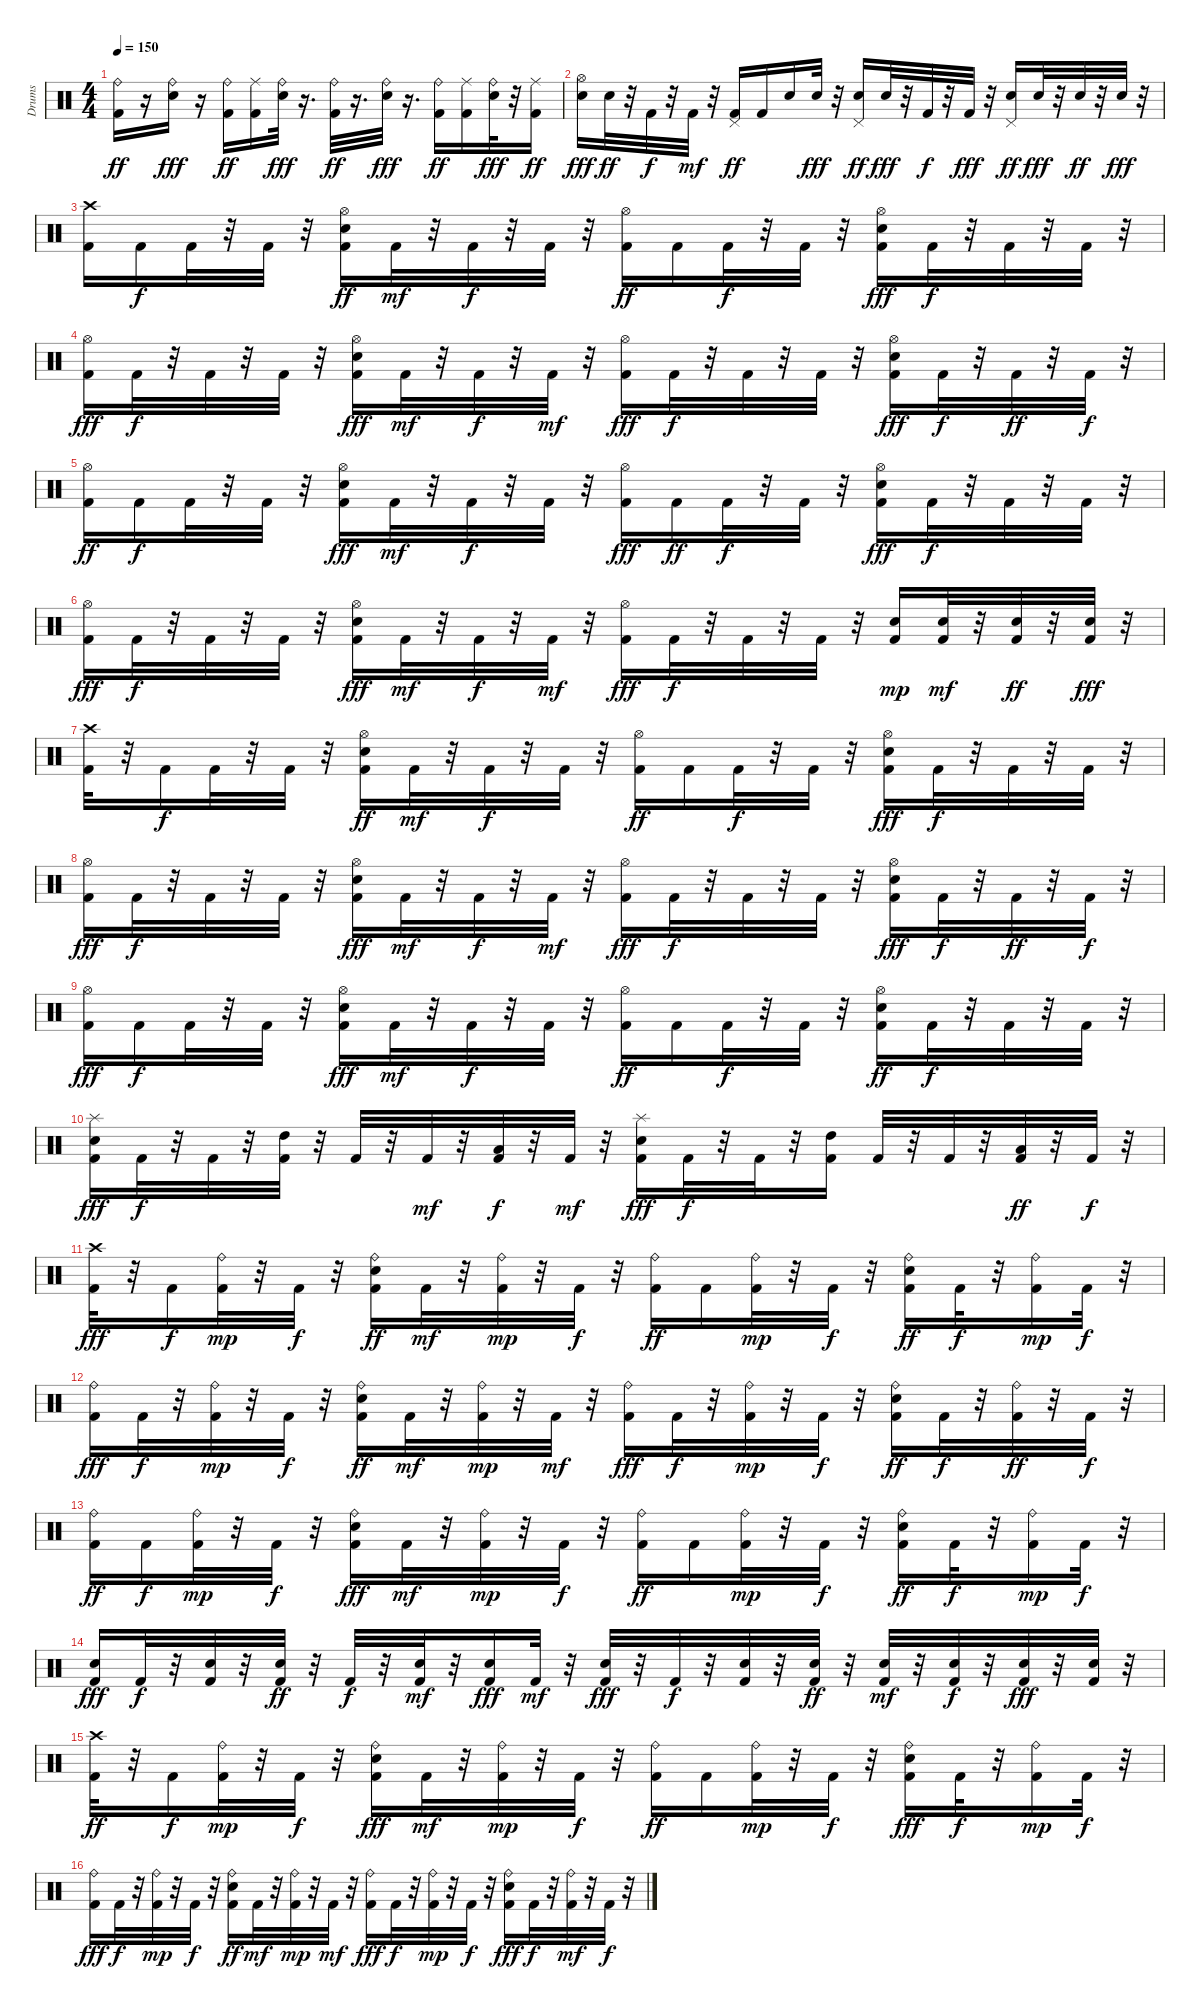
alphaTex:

\track ("Drums" "Drums") {instrument percussion}
\staff {score}
\articulation defaults
\ts (4 4)
\tempo 150
\clef neutral
\ks c
("Ride (bell)" "Kick (hit) 2").16{dy ff} r.16 ("Electric Snare (hit)" "Ride (bell)").16{dy fff} r.16 ("Ride (bell)" "Kick (hit) 2").16{dy ff} ("Ride (middle)" "Kick (hit) 2").16 ("Electric Snare (hit)" "Ride (bell)").32{dy fff} r.16{d} ("Ride (bell)" "Kick (hit) 2").32{dy ff} r.16{d} ("Electric Snare (hit)" "Ride (bell)").32{dy fff} r.16{d} ("Ride (bell)" "Kick (hit) 2").16{dy ff} ("Kick (hit) 2" "Ride (middle)").16 ("Ride (bell)" "Electric Snare (hit)").32{dy fff} r.32 ("Kick (hit) 2" "Ride (middle)").16{dy ff} |
("Electric Snare (hit)" "Hi-Hat (open)").16{dy fff} "Electric Snare (hit)".32{dy ff} r.32 "Kick (hit) 2".32{dy f} r.32 "Kick (hit) 2".32{dy mf} r.32 ("Kick (hit) 2" "Pedal Hi-Hat (hit)").16{dy ff} "Kick (hit) 2".16 "Electric Snare (hit)".16 "Electric Snare (hit)".32{dy fff} r.32 ("Electric Snare (hit)" "Pedal Hi-Hat (hit)").16{dy ff} "Electric Snare (hit)".32{dy fff} r.32 "Kick (hit) 2".32{dy f} r.32 "Kick (hit) 2".32{dy fff} r.32 ("Electric Snare (hit)" "Pedal Hi-Hat (hit)").16{dy ff} "Electric Snare (hit)".32{dy fff} r.32 "Electric Snare (hit)".32{dy ff} r.32 "Electric Snare (hit)".32{dy fff} r.32 |
("Kick (hit) 2" "Crash high (hit)").16 "Kick (hit) 2".16{dy f} "Kick (hit) 2".32 r.32 "Kick (hit) 2".32 r.32 ("Electric Snare (hit)" "Hi-Hat (open)" "Kick (hit) 2").16{dy ff} "Kick (hit) 2".32{dy mf} r.32 "Kick (hit) 2".32{dy f} r.32 "Kick (hit) 2".32 r.32 ("Hi-Hat (open)" "Kick (hit) 2").16{dy ff} "Kick (hit) 2".16 "Kick (hit) 2".32{dy f} r.32 "Kick (hit) 2".32 r.32 ("Kick (hit) 2" "Electric Snare (hit)" "Hi-Hat (open)").16{dy fff} "Kick (hit) 2".32{dy f} r.32 "Kick (hit) 2".32 r.32 "Kick (hit) 2".32 r.32 |
("Hi-Hat (open)" "Kick (hit) 2").16{dy fff} "Kick (hit) 2".32{dy f} r.32 "Kick (hit) 2".32 r.32 "Kick (hit) 2".32 r.32 ("Kick (hit) 2" "Hi-Hat (open)" "Electric Snare (hit)").16{dy fff} "Kick (hit) 2".32{dy mf} r.32 "Kick (hit) 2".32{dy f} r.32 "Kick (hit) 2".32{dy mf} r.32 ("Hi-Hat (open)" "Kick (hit) 2").16{dy fff} "Kick (hit) 2".32{dy f} r.32 "Kick (hit) 2".32 r.32 "Kick (hit) 2".32 r.32 ("Electric Snare (hit)" "Hi-Hat (open)" "Kick (hit) 2").16{dy fff} "Kick (hit) 2".32{dy f} r.32 "Kick (hit) 2".32{dy ff} r.32 "Kick (hit) 2".32{dy f} r.32 |
("Hi-Hat (open)" "Kick (hit) 2").16{dy ff} "Kick (hit) 2".16{dy f} "Kick (hit) 2".32 r.32 "Kick (hit) 2".32 r.32 ("Kick (hit) 2" "Hi-Hat (open)" "Electric Snare (hit)").16{dy fff} "Kick (hit) 2".32{dy mf} r.32 "Kick (hit) 2".32{dy f} r.32 "Kick (hit) 2".32 r.32 ("Kick (hit) 2" "Hi-Hat (open)").16{dy fff} "Kick (hit) 2".16{dy ff} "Kick (hit) 2".32{dy f} r.32 "Kick (hit) 2".32 r.32 ("Kick (hit) 2" "Hi-Hat (open)" "Electric Snare (hit)").16{dy fff} "Kick (hit) 2".32{dy f} r.32 "Kick (hit) 2".32 r.32 "Kick (hit) 2".32 r.32 |
("Kick (hit) 2" "Hi-Hat (open)").16{dy fff} "Kick (hit) 2".32{dy f} r.32 "Kick (hit) 2".32 r.32 "Kick (hit) 2".32 r.32 ("Electric Snare (hit)" "Kick (hit) 2" "Hi-Hat (open)").16{dy fff} "Kick (hit) 2".32{dy mf} r.32 "Kick (hit) 2".32{dy f} r.32 "Kick (hit) 2".32{dy mf} r.32 ("Hi-Hat (open)" "Kick (hit) 2").16{dy fff} "Kick (hit) 2".32{dy f} r.32 "Kick (hit) 2".32 r.32 "Kick (hit) 2".32 r.32 ("Electric Snare (hit)" "Kick (hit) 2").16{dy mp} ("Electric Snare (hit)" "Kick (hit) 2").32{dy mf} r.32 ("Kick (hit) 2" "Electric Snare (hit)").32{dy ff} r.32 ("Electric Snare (hit)" "Kick (hit) 2").32{dy fff} r.32 |
("Kick (hit) 2" "Crash high (hit)").32 r.32 "Kick (hit) 2".16{dy f} "Kick (hit) 2".32 r.32 "Kick (hit) 2".32 r.32 ("Electric Snare (hit)" "Hi-Hat (open)" "Kick (hit) 2").16{dy ff} "Kick (hit) 2".32{dy mf} r.32 "Kick (hit) 2".32{dy f} r.32 "Kick (hit) 2".32 r.32 ("Hi-Hat (open)" "Kick (hit) 2").16{dy ff} "Kick (hit) 2".16 "Kick (hit) 2".32{dy f} r.32 "Kick (hit) 2".32 r.32 ("Hi-Hat (open)" "Kick (hit) 2" "Electric Snare (hit)").16{dy fff} "Kick (hit) 2".32{dy f} r.32 "Kick (hit) 2".32 r.32 "Kick (hit) 2".32 r.32 |
("Hi-Hat (open)" "Kick (hit) 2").16{dy fff} "Kick (hit) 2".32{dy f} r.32 "Kick (hit) 2".32 r.32 "Kick (hit) 2".32 r.32 ("Kick (hit) 2" "Hi-Hat (open)" "Electric Snare (hit)").16{dy fff} "Kick (hit) 2".32{dy mf} r.32 "Kick (hit) 2".32{dy f} r.32 "Kick (hit) 2".32{dy mf} r.32 ("Kick (hit) 2" "Hi-Hat (open)").16{dy fff} "Kick (hit) 2".32{dy f} r.32 "Kick (hit) 2".32 r.32 "Kick (hit) 2".32 r.32 ("Hi-Hat (open)" "Kick (hit) 2" "Electric Snare (hit)").16{dy fff} "Kick (hit) 2".32{dy f} r.32 "Kick (hit) 2".32{dy ff} r.32 "Kick (hit) 2".32{dy f} r.32 |
("Kick (hit) 2" "Hi-Hat (open)").16{dy fff} "Kick (hit) 2".16{dy f} "Kick (hit) 2".32 r.32 "Kick (hit) 2".32 r.32 ("Hi-Hat (open)" "Kick (hit) 2" "Electric Snare (hit)").16{dy fff} "Kick (hit) 2".32{dy mf} r.32 "Kick (hit) 2".32{dy f} r.32 "Kick (hit) 2".32 r.32 ("Hi-Hat (open)" "Kick (hit) 2").16{dy ff} "Kick (hit) 2".16 "Kick (hit) 2".32{dy f} r.32 "Kick (hit) 2".32 r.32 ("Hi-Hat (open)" "Electric Snare (hit)" "Kick (hit) 2").16{dy ff} "Kick (hit) 2".32{dy f} r.32 "Kick (hit) 2".32 r.32 "Kick (hit) 2".32 r.32 |
("Splash (hit)" "Electric Snare (hit)" "Kick (hit) 2").16{dy fff} "Kick (hit) 2".32{dy f} r.32 "Kick (hit) 2".32 r.32 ("High Tom (hit)" "Kick (hit) 2").32 r.32 "Kick (hit) 2".32 r.32 "Kick (hit) 2".32{dy mf} r.32 ("Kick (hit) 2" "Low Tom (hit)").32{dy f} r.32 "Kick (hit) 2".32{dy mf} r.32 ("Electric Snare (hit)" "Splash (hit)" "Kick (hit) 2").16{dy fff} "Kick (hit) 2".32{dy f} r.32 "Kick (hit) 2".32 r.32 ("Kick (hit) 2" "High Tom (hit)").16 "Kick (hit) 2".32 r.32 "Kick (hit) 2".32 r.32 ("Low Tom (hit)" "Kick (hit) 2").32{dy ff} r.32 "Kick (hit) 2".32{dy f} r.32 |
("Kick (hit) 2" "Crash high (hit)").32{dy fff} r.32 "Kick (hit) 2".16{dy f} ("Ride (bell)" "Kick (hit) 2").32{dy mp} r.32 "Kick (hit) 2".32{dy f} r.32 ("Ride (bell)" "Electric Snare (hit)" "Kick (hit) 2").16{dy ff} "Kick (hit) 2".32{dy mf} r.32 ("Ride (bell)" "Kick (hit) 2").32{dy mp} r.32 "Kick (hit) 2".32{dy f} r.32 ("Kick (hit) 2" "Ride (bell)").16{dy ff} "Kick (hit) 2".16 ("Kick (hit) 2" "Ride (bell)").32{dy mp} r.32 "Kick (hit) 2".32{dy f} r.32 ("Electric Snare (hit)" "Ride (bell)" "Kick (hit) 2").16{dy ff} "Kick (hit) 2".32{dy f} r.32 ("Ride (bell)" "Kick (hit) 2").16{dy mp} "Kick (hit) 2".32{dy f} r.32 |
("Ride (bell)" "Kick (hit) 2").16{dy fff} "Kick (hit) 2".32{dy f} r.32 ("Kick (hit) 2" "Ride (bell)").32{dy mp} r.32 "Kick (hit) 2".32{dy f} r.32 ("Electric Snare (hit)" "Kick (hit) 2" "Ride (bell)").16{dy ff} "Kick (hit) 2".32{dy mf} r.32 ("Ride (bell)" "Kick (hit) 2").32{dy mp} r.32 "Kick (hit) 2".32{dy mf} r.32 ("Ride (bell)" "Kick (hit) 2").16{dy fff} "Kick (hit) 2".32{dy f} r.32 ("Ride (bell)" "Kick (hit) 2").32{dy mp} r.32 "Kick (hit) 2".32{dy f} r.32 ("Electric Snare (hit)" "Kick (hit) 2" "Ride (bell)").16{dy ff} "Kick (hit) 2".32{dy f} r.32 ("Ride (bell)" "Kick (hit) 2").32{dy ff} r.32 "Kick (hit) 2".32{dy f} r.32 |
("Ride (bell)" "Kick (hit) 2").16{dy ff} "Kick (hit) 2".16{dy f} ("Ride (bell)" "Kick (hit) 2").32{dy mp} r.32 "Kick (hit) 2".32{dy f} r.32 ("Electric Snare (hit)" "Kick (hit) 2" "Ride (bell)").16{dy fff} "Kick (hit) 2".32{dy mf} r.32 ("Ride (bell)" "Kick (hit) 2").32{dy mp} r.32 "Kick (hit) 2".32{dy f} r.32 ("Ride (bell)" "Kick (hit) 2").16{dy ff} "Kick (hit) 2".16 ("Ride (bell)" "Kick (hit) 2").32{dy mp} r.32 "Kick (hit) 2".32{dy f} r.32 ("Electric Snare (hit)" "Ride (bell)" "Kick (hit) 2").16{dy ff} "Kick (hit) 2".32{dy f} r.32 ("Ride (bell)" "Kick (hit) 2").16{dy mp} "Kick (hit) 2".32{dy f} r.32 |
("Kick (hit) 2" "Electric Snare (hit)").16{dy fff} "Kick (hit) 2".32{dy f} r.32 ("Kick (hit) 2" "Electric Snare (hit)").32 r.32 ("Electric Snare (hit)" "Kick (hit) 2").32{dy ff} r.32 "Kick (hit) 2".32{dy f} r.32 ("Kick (hit) 2" "Electric Snare (hit)").32{dy mf} r.32 ("Electric Snare (hit)" "Kick (hit) 2").16{dy fff} "Kick (hit) 2".32{dy mf} r.32 ("Electric Snare (hit)" "Kick (hit) 2").32{dy fff} r.32 "Kick (hit) 2".32{dy f} r.32 ("Kick (hit) 2" "Electric Snare (hit)").32 r.32 ("Kick (hit) 2" "Electric Snare (hit)").32{dy ff} r.32 ("Electric Snare (hit)" "Kick (hit) 2").32{dy mf} r.32 ("Electric Snare (hit)" "Kick (hit) 2").32{dy f} r.32 ("Kick (hit) 2" "Electric Snare (hit)").32{dy fff} r.32 ("Kick (hit) 2" "Electric Snare (hit)").32 r.32 |
("Crash high (hit)" "Kick (hit) 2").32{dy ff} r.32 "Kick (hit) 2".16{dy f} ("Kick (hit) 2" "Ride (bell)").32{dy mp} r.32 "Kick (hit) 2".32{dy f} r.32 ("Kick (hit) 2" "Ride (bell)" "Electric Snare (hit)").16{dy fff} "Kick (hit) 2".32{dy mf} r.32 ("Ride (bell)" "Kick (hit) 2").32{dy mp} r.32 "Kick (hit) 2".32{dy f} r.32 ("Ride (bell)" "Kick (hit) 2").16{dy ff} "Kick (hit) 2".16 ("Kick (hit) 2" "Ride (bell)").32{dy mp} r.32 "Kick (hit) 2".32{dy f} r.32 ("Ride (bell)" "Kick (hit) 2" "Electric Snare (hit)").16{dy fff} "Kick (hit) 2".32{dy f} r.32 ("Kick (hit) 2" "Ride (bell)").16{dy mp} "Kick (hit) 2".32{dy f} r.32 |
("Ride (bell)" "Kick (hit) 2").16{dy fff} "Kick (hit) 2".32{dy f} r.32 ("Ride (bell)" "Kick (hit) 2").32{dy mp} r.32 "Kick (hit) 2".32{dy f} r.32 ("Kick (hit) 2" "Electric Snare (hit)" "Ride (bell)").16{dy ff} "Kick (hit) 2".32{dy mf} r.32 ("Kick (hit) 2" "Ride (bell)").32{dy mp} r.32 "Kick (hit) 2".32{dy mf} r.32 ("Kick (hit) 2" "Ride (bell)").16{dy fff} "Kick (hit) 2".32{dy f} r.32 ("Kick (hit) 2" "Ride (bell)").32{dy mp} r.32 "Kick (hit) 2".32{dy f} r.32 ("Kick (hit) 2" "Ride (bell)" "Electric Snare (hit)").16{dy fff} "Kick (hit) 2".32{dy f} r.32 ("Kick (hit) 2" "Ride (bell)").32{dy mf} r.32 "Kick (hit) 2".32{dy f} r.32
